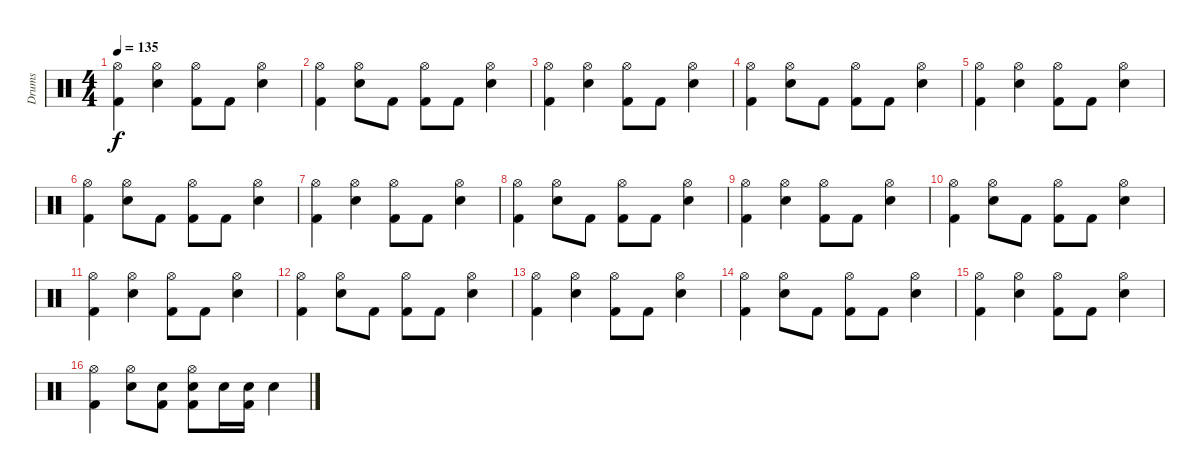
\track ("Drums" "Drums") {instrument percussion}
\staff {score}
\articulation defaults
\ts (4 4)
\tempo 135
\clef neutral
\ks c
("Hi-Hat (open)" "Kick (hit) 2").4{dy f} ("Snare (hit) 2" "Hi-Hat (open)").4 ("Hi-Hat (open)" "Kick (hit) 2").8 "Kick (hit) 2".8 ("Snare (hit) 2" "Hi-Hat (open)").4 |
("Hi-Hat (open)" "Kick (hit) 2").4 ("Snare (hit) 2" "Hi-Hat (open)").8 "Kick (hit) 2".8 ("Hi-Hat (open)" "Kick (hit) 2").8 "Kick (hit) 2".8 ("Snare (hit) 2" "Hi-Hat (open)").4 |
("Hi-Hat (open)" "Kick (hit) 2").4 ("Snare (hit) 2" "Hi-Hat (open)").4 ("Hi-Hat (open)" "Kick (hit) 2").8 "Kick (hit) 2".8 ("Snare (hit) 2" "Hi-Hat (open)").4 |
("Hi-Hat (open)" "Kick (hit) 2").4 ("Snare (hit) 2" "Hi-Hat (open)").8 "Kick (hit) 2".8 ("Hi-Hat (open)" "Kick (hit) 2").8 "Kick (hit) 2".8 ("Snare (hit) 2" "Hi-Hat (open)").4 |
("Hi-Hat (open)" "Kick (hit) 2").4 ("Snare (hit) 2" "Hi-Hat (open)").4 ("Hi-Hat (open)" "Kick (hit) 2").8 "Kick (hit) 2".8 ("Snare (hit) 2" "Hi-Hat (open)").4 |
("Hi-Hat (open)" "Kick (hit) 2").4 ("Snare (hit) 2" "Hi-Hat (open)").8 "Kick (hit) 2".8 ("Hi-Hat (open)" "Kick (hit) 2").8 "Kick (hit) 2".8 ("Snare (hit) 2" "Hi-Hat (open)").4 |
("Hi-Hat (open)" "Kick (hit) 2").4 ("Snare (hit) 2" "Hi-Hat (open)").4 ("Hi-Hat (open)" "Kick (hit) 2").8 "Kick (hit) 2".8 ("Snare (hit) 2" "Hi-Hat (open)").4 |
("Hi-Hat (open)" "Kick (hit) 2").4 ("Snare (hit) 2" "Hi-Hat (open)").8 "Kick (hit) 2".8 ("Hi-Hat (open)" "Kick (hit) 2").8 "Kick (hit) 2".8 ("Snare (hit) 2" "Hi-Hat (open)").4 |
("Hi-Hat (open)" "Kick (hit) 2").4 ("Snare (hit) 2" "Hi-Hat (open)").4 ("Hi-Hat (open)" "Kick (hit) 2").8 "Kick (hit) 2".8 ("Snare (hit) 2" "Hi-Hat (open)").4 |
("Hi-Hat (open)" "Kick (hit) 2").4 ("Snare (hit) 2" "Hi-Hat (open)").8 "Kick (hit) 2".8 ("Hi-Hat (open)" "Kick (hit) 2").8 "Kick (hit) 2".8 ("Snare (hit) 2" "Hi-Hat (open)").4 |
("Hi-Hat (open)" "Kick (hit) 2").4 ("Snare (hit) 2" "Hi-Hat (open)").4 ("Hi-Hat (open)" "Kick (hit) 2").8 "Kick (hit) 2".8 ("Snare (hit) 2" "Hi-Hat (open)").4 |
("Hi-Hat (open)" "Kick (hit) 2").4 ("Snare (hit) 2" "Hi-Hat (open)").8 "Kick (hit) 2".8 ("Hi-Hat (open)" "Kick (hit) 2").8 "Kick (hit) 2".8 ("Snare (hit) 2" "Hi-Hat (open)").4 |
("Hi-Hat (open)" "Kick (hit) 2").4 ("Snare (hit) 2" "Hi-Hat (open)").4 ("Hi-Hat (open)" "Kick (hit) 2").8 "Kick (hit) 2".8 ("Snare (hit) 2" "Hi-Hat (open)").4 |
("Hi-Hat (open)" "Kick (hit) 2").4 ("Snare (hit) 2" "Hi-Hat (open)").8 "Kick (hit) 2".8 ("Hi-Hat (open)" "Kick (hit) 2").8 "Kick (hit) 2".8 ("Snare (hit) 2" "Hi-Hat (open)").4 |
("Hi-Hat (open)" "Kick (hit) 2").4 ("Snare (hit) 2" "Hi-Hat (open)").4 ("Hi-Hat (open)" "Kick (hit) 2").8 "Kick (hit) 2".8 ("Snare (hit) 2" "Hi-Hat (open)").4 |
("Hi-Hat (open)" "Kick (hit) 2").4 ("Snare (hit) 2" "Hi-Hat (open)").8 ("Snare (hit) 2" "Kick (hit) 2").8 ("Snare (hit) 2" "Hi-Hat (open)" "Kick (hit) 2").8 "Snare (hit) 2".16 ("Snare (hit) 2" "Kick (hit) 2").16 "Snare (hit) 2".4
